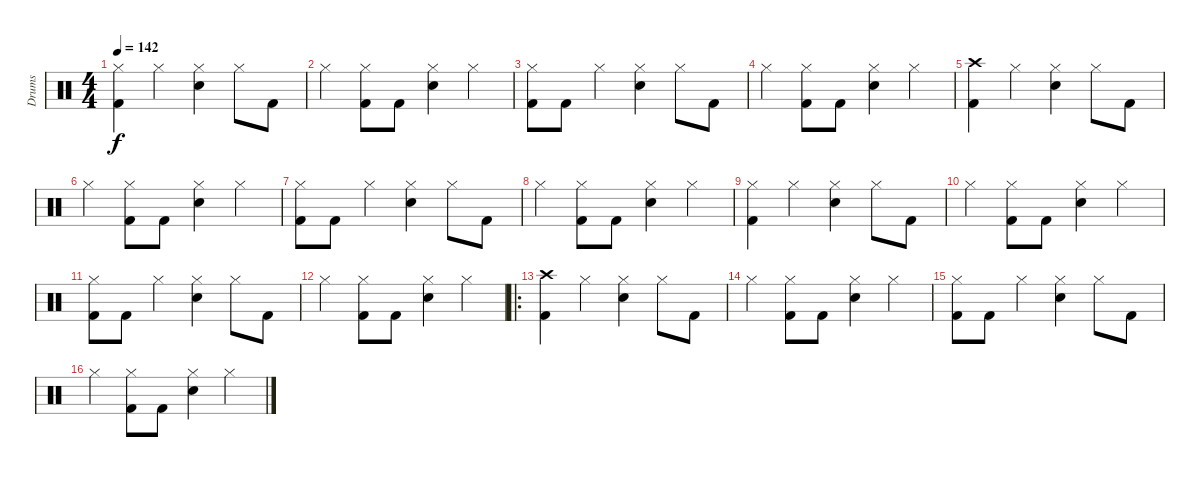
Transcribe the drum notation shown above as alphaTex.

\track ("Drums" "Drums") {instrument percussion}
\staff {score}
\articulation defaults
\ts (4 4)
\tempo 142
\clef neutral
\ks c
("Hi-Hat (closed)" "Kick (hit) 2").4{dy f} "Hi-Hat (closed)".4 ("Hi-Hat (closed)" "Electric Snare (hit)").4 "Hi-Hat (closed)".8 "Kick (hit) 2".8 |
"Hi-Hat (closed)".4 ("Hi-Hat (closed)" "Kick (hit) 2").8 "Kick (hit) 2".8 ("Hi-Hat (closed)" "Electric Snare (hit)").4 "Hi-Hat (closed)".4 |
("Hi-Hat (closed)" "Kick (hit) 2").8 "Kick (hit) 2".8 "Hi-Hat (closed)".4 ("Hi-Hat (closed)" "Electric Snare (hit)").4 "Hi-Hat (closed)".8 "Kick (hit) 2".8 |
"Hi-Hat (closed)".4 ("Hi-Hat (closed)" "Kick (hit) 2").8 "Kick (hit) 2".8 ("Hi-Hat (closed)" "Electric Snare (hit)").4 "Hi-Hat (closed)".4 |
("Crash high (hit)" "Kick (hit) 2").4 "Hi-Hat (closed)".4 ("Hi-Hat (closed)" "Electric Snare (hit)").4 "Hi-Hat (closed)".8 "Kick (hit) 2".8 |
"Hi-Hat (closed)".4 ("Hi-Hat (closed)" "Kick (hit) 2").8 "Kick (hit) 2".8 ("Hi-Hat (closed)" "Electric Snare (hit)").4 "Hi-Hat (closed)".4 |
("Hi-Hat (closed)" "Kick (hit) 2").8 "Kick (hit) 2".8 "Hi-Hat (closed)".4 ("Hi-Hat (closed)" "Electric Snare (hit)").4 "Hi-Hat (closed)".8 "Kick (hit) 2".8 |
"Hi-Hat (closed)".4 ("Hi-Hat (closed)" "Kick (hit) 2").8 "Kick (hit) 2".8 ("Hi-Hat (closed)" "Electric Snare (hit)").4 "Hi-Hat (closed)".4 |
("Hi-Hat (closed)" "Kick (hit) 2").4 "Hi-Hat (closed)".4 ("Hi-Hat (closed)" "Electric Snare (hit)").4 "Hi-Hat (closed)".8 "Kick (hit) 2".8 |
"Hi-Hat (closed)".4 ("Hi-Hat (closed)" "Kick (hit) 2").8 "Kick (hit) 2".8 ("Hi-Hat (closed)" "Electric Snare (hit)").4 "Hi-Hat (closed)".4 |
("Hi-Hat (closed)" "Kick (hit) 2").8 "Kick (hit) 2".8 "Hi-Hat (closed)".4 ("Hi-Hat (closed)" "Electric Snare (hit)").4 "Hi-Hat (closed)".8 "Kick (hit) 2".8 |
"Hi-Hat (closed)".4 ("Hi-Hat (closed)" "Kick (hit) 2").8 "Kick (hit) 2".8 ("Hi-Hat (closed)" "Electric Snare (hit)").4 "Hi-Hat (closed)".4 |
\ro
("Crash high (hit)" "Kick (hit) 2").4 "Hi-Hat (closed)".4 ("Hi-Hat (closed)" "Electric Snare (hit)").4 "Hi-Hat (closed)".8 "Kick (hit) 2".8 |
"Hi-Hat (closed)".4 ("Hi-Hat (closed)" "Kick (hit) 2").8 "Kick (hit) 2".8 ("Hi-Hat (closed)" "Electric Snare (hit)").4 "Hi-Hat (closed)".4 |
("Hi-Hat (closed)" "Kick (hit) 2").8 "Kick (hit) 2".8 "Hi-Hat (closed)".4 ("Hi-Hat (closed)" "Electric Snare (hit)").4 "Hi-Hat (closed)".8 "Kick (hit) 2".8 |
"Hi-Hat (closed)".4 ("Hi-Hat (closed)" "Kick (hit) 2").8 "Kick (hit) 2".8 ("Hi-Hat (closed)" "Electric Snare (hit)").4 "Hi-Hat (closed)".4
